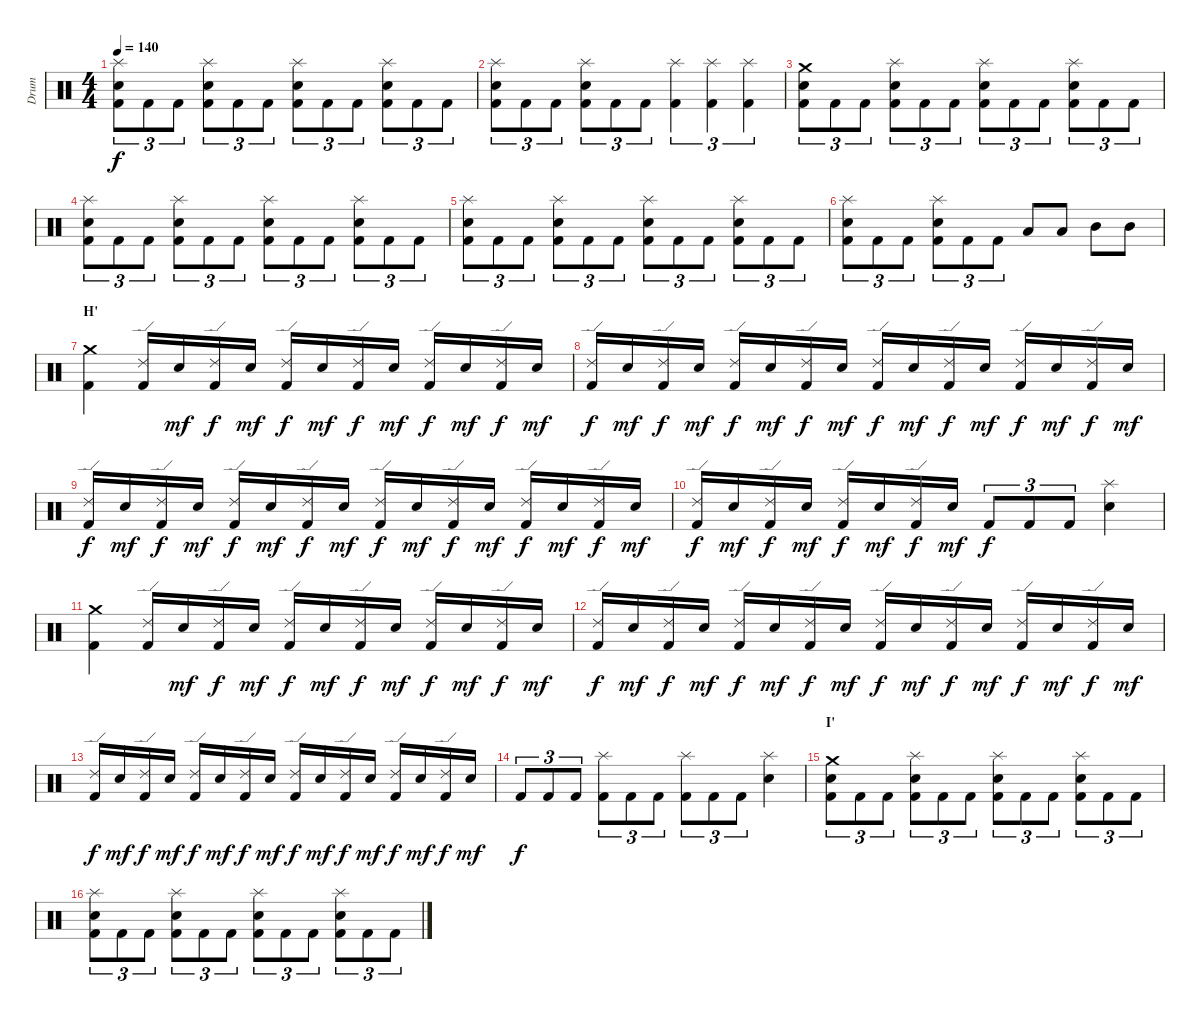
\track ("Drum" "Drum") {instrument percussion}
\staff {score}
\articulation defaults
\ts (4 4)
\tempo 140
\clef neutral
\ks c
("Splash (hit)" "Electric Snare (hit)" "Kick (hit) 2").8{tu (3 2) dy f} "Kick (hit) 2".8{tu (3 2)} "Kick (hit) 2".8{tu (3 2)} ("Splash (hit)" "Electric Snare (hit)" "Kick (hit) 2").8{tu (3 2)} "Kick (hit) 2".8{tu (3 2)} "Kick (hit) 2".8{tu (3 2)} ("Splash (hit)" "Electric Snare (hit)" "Kick (hit) 2").8{tu (3 2)} "Kick (hit) 2".8{tu (3 2)} "Kick (hit) 2".8{tu (3 2)} ("Splash (hit)" "Electric Snare (hit)" "Kick (hit) 2").8{tu (3 2)} "Kick (hit) 2".8{tu (3 2)} "Kick (hit) 2".8{tu (3 2)} |
("Splash (hit)" "Electric Snare (hit)" "Kick (hit) 2").8{tu (3 2)} "Kick (hit) 2".8{tu (3 2)} "Kick (hit) 2".8{tu (3 2)} ("Splash (hit)" "Electric Snare (hit)" "Kick (hit) 2").8{tu (3 2)} "Kick (hit) 2".8{tu (3 2)} "Kick (hit) 2".8{tu (3 2)} ("Splash (hit)" "Kick (hit) 2").4{tu (3 2)} ("Splash (hit)" "Kick (hit) 2").4{tu (3 2)} ("Splash (hit)" "Kick (hit) 2").4{tu (3 2)} |
("Crash medium (hit)" "Electric Snare (hit)" "Kick (hit) 2").8{tu (3 2)} "Kick (hit) 2".8{tu (3 2)} "Kick (hit) 2".8{tu (3 2)} ("Splash (hit)" "Electric Snare (hit)" "Kick (hit) 2").8{tu (3 2)} "Kick (hit) 2".8{tu (3 2)} "Kick (hit) 2".8{tu (3 2)} ("Splash (hit)" "Electric Snare (hit)" "Kick (hit) 2").8{tu (3 2)} "Kick (hit) 2".8{tu (3 2)} "Kick (hit) 2".8{tu (3 2)} ("Splash (hit)" "Electric Snare (hit)" "Kick (hit) 2").8{tu (3 2)} "Kick (hit) 2".8{tu (3 2)} "Kick (hit) 2".8{tu (3 2)} |
("Splash (hit)" "Electric Snare (hit)" "Kick (hit) 2").8{tu (3 2)} "Kick (hit) 2".8{tu (3 2)} "Kick (hit) 2".8{tu (3 2)} ("Splash (hit)" "Electric Snare (hit)" "Kick (hit) 2").8{tu (3 2)} "Kick (hit) 2".8{tu (3 2)} "Kick (hit) 2".8{tu (3 2)} ("Splash (hit)" "Electric Snare (hit)" "Kick (hit) 2").8{tu (3 2)} "Kick (hit) 2".8{tu (3 2)} "Kick (hit) 2".8{tu (3 2)} ("Splash (hit)" "Electric Snare (hit)" "Kick (hit) 2").8{tu (3 2)} "Kick (hit) 2".8{tu (3 2)} "Kick (hit) 2".8{tu (3 2)} |
("Splash (hit)" "Electric Snare (hit)" "Kick (hit) 2").8{tu (3 2)} "Kick (hit) 2".8{tu (3 2)} "Kick (hit) 2".8{tu (3 2)} ("Splash (hit)" "Electric Snare (hit)" "Kick (hit) 2").8{tu (3 2)} "Kick (hit) 2".8{tu (3 2)} "Kick (hit) 2".8{tu (3 2)} ("Splash (hit)" "Electric Snare (hit)" "Kick (hit) 2").8{tu (3 2)} "Kick (hit) 2".8{tu (3 2)} "Kick (hit) 2".8{tu (3 2)} ("Splash (hit)" "Electric Snare (hit)" "Kick (hit) 2").8{tu (3 2)} "Kick (hit) 2".8{tu (3 2)} "Kick (hit) 2".8{tu (3 2)} |
("Splash (hit)" "Electric Snare (hit)" "Kick (hit) 2").8{tu (3 2)} "Kick (hit) 2".8{tu (3 2)} "Kick (hit) 2".8{tu (3 2)} ("Splash (hit)" "Electric Snare (hit)" "Kick (hit) 2").8{tu (3 2)} "Kick (hit) 2".8{tu (3 2)} "Kick (hit) 2".8{tu (3 2)} "Low Tom (hit)".8 "Low Tom (hit)".8 "Mid Tom (hit)".8 "Mid Tom (hit)".8 |
\section ("" "H'")
("Crash medium (hit)" "Kick (hit) 2").4 ("Ride (edge) 2" "Kick (hit) 2").16 "Electric Snare (hit)".16{dy mf} ("Ride (edge) 2" "Kick (hit) 2").16{dy f} "Electric Snare (hit)".16{dy mf} ("Ride (edge) 2" "Kick (hit) 2").16{dy f} "Electric Snare (hit)".16{dy mf} ("Ride (edge) 2" "Kick (hit) 2").16{dy f} "Electric Snare (hit)".16{dy mf} ("Ride (edge) 2" "Kick (hit) 2").16{dy f} "Electric Snare (hit)".16{dy mf} ("Ride (edge) 2" "Kick (hit) 2").16{dy f} "Electric Snare (hit)".16{dy mf} |
("Ride (edge) 2" "Kick (hit) 2").16{dy f} "Electric Snare (hit)".16{dy mf} ("Ride (edge) 2" "Kick (hit) 2").16{dy f} "Electric Snare (hit)".16{dy mf} ("Ride (edge) 2" "Kick (hit) 2").16{dy f} "Electric Snare (hit)".16{dy mf} ("Ride (edge) 2" "Kick (hit) 2").16{dy f} "Electric Snare (hit)".16{dy mf} ("Ride (edge) 2" "Kick (hit) 2").16{dy f} "Electric Snare (hit)".16{dy mf} ("Ride (edge) 2" "Kick (hit) 2").16{dy f} "Electric Snare (hit)".16{dy mf} ("Ride (edge) 2" "Kick (hit) 2").16{dy f} "Electric Snare (hit)".16{dy mf} ("Ride (edge) 2" "Kick (hit) 2").16{dy f} "Electric Snare (hit)".16{dy mf} |
("Ride (edge) 2" "Kick (hit) 2").16{dy f} "Electric Snare (hit)".16{dy mf} ("Ride (edge) 2" "Kick (hit) 2").16{dy f} "Electric Snare (hit)".16{dy mf} ("Ride (edge) 2" "Kick (hit) 2").16{dy f} "Electric Snare (hit)".16{dy mf} ("Ride (edge) 2" "Kick (hit) 2").16{dy f} "Electric Snare (hit)".16{dy mf} ("Ride (edge) 2" "Kick (hit) 2").16{dy f} "Electric Snare (hit)".16{dy mf} ("Ride (edge) 2" "Kick (hit) 2").16{dy f} "Electric Snare (hit)".16{dy mf} ("Ride (edge) 2" "Kick (hit) 2").16{dy f} "Electric Snare (hit)".16{dy mf} ("Ride (edge) 2" "Kick (hit) 2").16{dy f} "Electric Snare (hit)".16{dy mf} |
("Ride (edge) 2" "Kick (hit) 2").16{dy f} "Electric Snare (hit)".16{dy mf} ("Ride (edge) 2" "Kick (hit) 2").16{dy f} "Electric Snare (hit)".16{dy mf} ("Ride (edge) 2" "Kick (hit) 2").16{dy f} "Electric Snare (hit)".16{dy mf} ("Ride (edge) 2" "Kick (hit) 2").16{dy f} "Electric Snare (hit)".16{dy mf} "Kick (hit) 2".8{tu (3 2) dy f} "Kick (hit) 2".8{tu (3 2)} "Kick (hit) 2".8{tu (3 2)} ("Splash (hit)" "Electric Snare (hit)").4 |
("Crash medium (hit)" "Kick (hit) 2").4 ("Ride (edge) 2" "Kick (hit) 2").16 "Electric Snare (hit)".16{dy mf} ("Ride (edge) 2" "Kick (hit) 2").16{dy f} "Electric Snare (hit)".16{dy mf} ("Ride (edge) 2" "Kick (hit) 2").16{dy f} "Electric Snare (hit)".16{dy mf} ("Ride (edge) 2" "Kick (hit) 2").16{dy f} "Electric Snare (hit)".16{dy mf} ("Ride (edge) 2" "Kick (hit) 2").16{dy f} "Electric Snare (hit)".16{dy mf} ("Ride (edge) 2" "Kick (hit) 2").16{dy f} "Electric Snare (hit)".16{dy mf} |
("Ride (edge) 2" "Kick (hit) 2").16{dy f} "Electric Snare (hit)".16{dy mf} ("Ride (edge) 2" "Kick (hit) 2").16{dy f} "Electric Snare (hit)".16{dy mf} ("Ride (edge) 2" "Kick (hit) 2").16{dy f} "Electric Snare (hit)".16{dy mf} ("Ride (edge) 2" "Kick (hit) 2").16{dy f} "Electric Snare (hit)".16{dy mf} ("Ride (edge) 2" "Kick (hit) 2").16{dy f} "Electric Snare (hit)".16{dy mf} ("Ride (edge) 2" "Kick (hit) 2").16{dy f} "Electric Snare (hit)".16{dy mf} ("Ride (edge) 2" "Kick (hit) 2").16{dy f} "Electric Snare (hit)".16{dy mf} ("Ride (edge) 2" "Kick (hit) 2").16{dy f} "Electric Snare (hit)".16{dy mf} |
("Ride (edge) 2" "Kick (hit) 2").16{dy f} "Electric Snare (hit)".16{dy mf} ("Ride (edge) 2" "Kick (hit) 2").16{dy f} "Electric Snare (hit)".16{dy mf} ("Ride (edge) 2" "Kick (hit) 2").16{dy f} "Electric Snare (hit)".16{dy mf} ("Ride (edge) 2" "Kick (hit) 2").16{dy f} "Electric Snare (hit)".16{dy mf} ("Ride (edge) 2" "Kick (hit) 2").16{dy f} "Electric Snare (hit)".16{dy mf} ("Ride (edge) 2" "Kick (hit) 2").16{dy f} "Electric Snare (hit)".16{dy mf} ("Ride (edge) 2" "Kick (hit) 2").16{dy f} "Electric Snare (hit)".16{dy mf} ("Ride (edge) 2" "Kick (hit) 2").16{dy f} "Electric Snare (hit)".16{dy mf} |
"Kick (hit) 2".8{tu (3 2) dy f} "Kick (hit) 2".8{tu (3 2)} "Kick (hit) 2".8{tu (3 2)} ("Splash (hit)" "Kick (hit) 2").8{tu (3 2)} "Kick (hit) 2".8{tu (3 2)} "Kick (hit) 2".8{tu (3 2)} ("Splash (hit)" "Kick (hit) 2").8{tu (3 2)} "Kick (hit) 2".8{tu (3 2)} "Kick (hit) 2".8{tu (3 2)} ("Splash (hit)" "Electric Snare (hit)").4 |
\section ("" "I'")
("Crash medium (hit)" "Electric Snare (hit)" "Kick (hit) 2").8{tu (3 2)} "Kick (hit) 2".8{tu (3 2)} "Kick (hit) 2".8{tu (3 2)} ("Splash (hit)" "Electric Snare (hit)" "Kick (hit) 2").8{tu (3 2)} "Kick (hit) 2".8{tu (3 2)} "Kick (hit) 2".8{tu (3 2)} ("Splash (hit)" "Electric Snare (hit)" "Kick (hit) 2").8{tu (3 2)} "Kick (hit) 2".8{tu (3 2)} "Kick (hit) 2".8{tu (3 2)} ("Splash (hit)" "Electric Snare (hit)" "Kick (hit) 2").8{tu (3 2)} "Kick (hit) 2".8{tu (3 2)} "Kick (hit) 2".8{tu (3 2)} |
("Splash (hit)" "Electric Snare (hit)" "Kick (hit) 2").8{tu (3 2)} "Kick (hit) 2".8{tu (3 2)} "Kick (hit) 2".8{tu (3 2)} ("Splash (hit)" "Electric Snare (hit)" "Kick (hit) 2").8{tu (3 2)} "Kick (hit) 2".8{tu (3 2)} "Kick (hit) 2".8{tu (3 2)} ("Splash (hit)" "Electric Snare (hit)" "Kick (hit) 2").8{tu (3 2)} "Kick (hit) 2".8{tu (3 2)} "Kick (hit) 2".8{tu (3 2)} ("Splash (hit)" "Electric Snare (hit)" "Kick (hit) 2").8{tu (3 2)} "Kick (hit) 2".8{tu (3 2)} "Kick (hit) 2".8{tu (3 2)}
